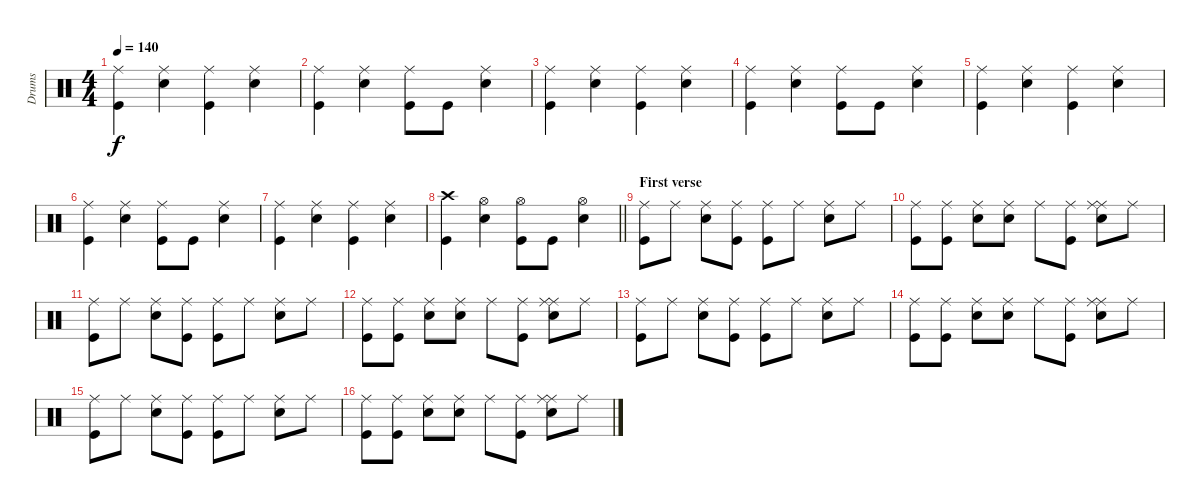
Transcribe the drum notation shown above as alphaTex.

\track ("Drums" "Drums") {instrument percussion}
\staff {score}
\articulation defaults
\ts (4 4)
\tempo 140
\clef neutral
\ks c
("Ride (middle)" "Kick (hit)").4{dy f} ("Ride (middle)" "Snare (hit) 2").4 ("Ride (middle)" "Kick (hit)").4 ("Ride (middle)" "Snare (hit) 2").4 |
("Ride (middle)" "Kick (hit)").4 ("Ride (middle)" "Snare (hit) 2").4 ("Ride (middle)" "Kick (hit)").8 "Kick (hit)".8 ("Ride (middle)" "Snare (hit) 2").4 |
("Ride (middle)" "Kick (hit)").4 ("Ride (middle)" "Snare (hit) 2").4 ("Ride (middle)" "Kick (hit)").4 ("Ride (middle)" "Snare (hit) 2").4 |
("Ride (middle)" "Kick (hit)").4 ("Ride (middle)" "Snare (hit) 2").4 ("Ride (middle)" "Kick (hit)").8 "Kick (hit)".8 ("Ride (middle)" "Snare (hit) 2").4 |
("Ride (middle)" "Kick (hit)").4 ("Ride (middle)" "Snare (hit) 2").4 ("Ride (middle)" "Kick (hit)").4 ("Ride (middle)" "Snare (hit) 2").4 |
("Ride (middle)" "Kick (hit)").4 ("Ride (middle)" "Snare (hit) 2").4 ("Ride (middle)" "Kick (hit)").8 "Kick (hit)".8 ("Ride (middle)" "Snare (hit) 2").4 |
("Ride (middle)" "Kick (hit)").4 ("Ride (middle)" "Snare (hit) 2").4 ("Ride (middle)" "Kick (hit)").4 ("Ride (middle)" "Snare (hit) 2").4 |
\barLineRight lightlight
("Crash high (hit)" "Kick (hit)").4 ("Hi-Hat (open)" "Snare (hit) 2").4 ("Hi-Hat (open)" "Kick (hit)").8 "Kick (hit)".8 ("Hi-Hat (open)" "Snare (hit) 2").4 |
\section ("" "First verse")
("Ride (middle)" "Kick (hit)").8 "Ride (middle)".8 ("Ride (middle)" "Snare (hit) 2").8 ("Ride (middle)" "Kick (hit)").8 ("Ride (middle)" "Kick (hit)").8 "Ride (middle)".8 ("Ride (middle)" "Snare (hit) 2").8 "Ride (middle)".8 |
("Ride (middle)" "Kick (hit)").8 ("Ride (middle)" "Kick (hit)").8 ("Ride (middle)" "Snare (hit) 2").8 ("Ride (middle)" "Snare (hit) 2").8 "Ride (middle)".8 ("Ride (middle)" "Kick (hit)").8 ("Ride (middle)" "Ride (middle)" "Snare (hit) 2").8 "Ride (middle)".8 |
("Ride (middle)" "Kick (hit)").8 "Ride (middle)".8 ("Ride (middle)" "Snare (hit) 2").8 ("Ride (middle)" "Kick (hit)").8 ("Ride (middle)" "Kick (hit)").8 "Ride (middle)".8 ("Ride (middle)" "Snare (hit) 2").8 "Ride (middle)".8 |
("Ride (middle)" "Kick (hit)").8 ("Ride (middle)" "Kick (hit)").8 ("Ride (middle)" "Snare (hit) 2").8 ("Ride (middle)" "Snare (hit) 2").8 "Ride (middle)".8 ("Ride (middle)" "Kick (hit)").8 ("Ride (middle)" "Ride (middle)" "Snare (hit) 2").8 "Ride (middle)".8 |
("Ride (middle)" "Kick (hit)").8 "Ride (middle)".8 ("Ride (middle)" "Snare (hit) 2").8 ("Ride (middle)" "Kick (hit)").8 ("Ride (middle)" "Kick (hit)").8 "Ride (middle)".8 ("Ride (middle)" "Snare (hit) 2").8 "Ride (middle)".8 |
("Ride (middle)" "Kick (hit)").8 ("Ride (middle)" "Kick (hit)").8 ("Ride (middle)" "Snare (hit) 2").8 ("Ride (middle)" "Snare (hit) 2").8 "Ride (middle)".8 ("Ride (middle)" "Kick (hit)").8 ("Ride (middle)" "Ride (middle)" "Snare (hit) 2").8 "Ride (middle)".8 |
("Ride (middle)" "Kick (hit)").8 "Ride (middle)".8 ("Ride (middle)" "Snare (hit) 2").8 ("Ride (middle)" "Kick (hit)").8 ("Ride (middle)" "Kick (hit)").8 "Ride (middle)".8 ("Ride (middle)" "Snare (hit) 2").8 "Ride (middle)".8 |
("Ride (middle)" "Kick (hit)").8 ("Ride (middle)" "Kick (hit)").8 ("Ride (middle)" "Snare (hit) 2").8 ("Ride (middle)" "Snare (hit) 2").8 "Ride (middle)".8 ("Ride (middle)" "Kick (hit)").8 ("Ride (middle)" "Ride (middle)" "Snare (hit) 2").8 "Ride (middle)".8
